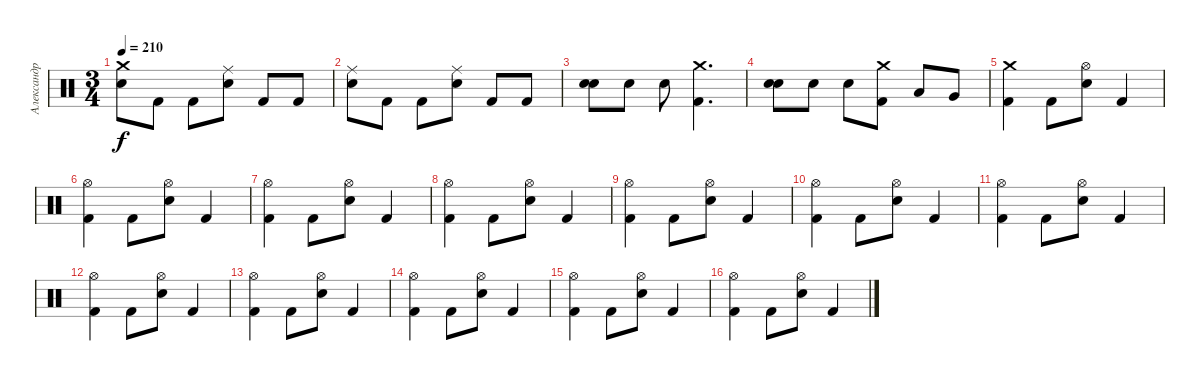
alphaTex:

\track ("Александр Манякин" "Александр ") {instrument percussion}
\staff {score}
\articulation defaults
\ts (3 4)
\tempo 210
\clef neutral
\ks c
("Crash medium (hit)" "Snare (hit) 2").8{dy f} "Kick (hit) 2".8 "Kick (hit) 2".8 ("Ride (middle)" "Snare (hit) 2").8 "Kick (hit) 2".8 "Kick (hit) 2".8 |
("Ride (middle)" "Snare (hit) 2").8 "Kick (hit) 2".8 "Kick (hit) 2".8 ("Ride (middle)" "Snare (hit) 2").8 "Kick (hit) 2".8 "Kick (hit) 2".8 |
("Snare (hit) 2" "Snare (hit) 2").8{bd 60} "Snare (hit) 2".8 "Snare (hit) 2".8 ("Crash medium (hit)" "Kick (hit) 2").4{d} |
("Snare (hit) 2" "Snare (hit) 2").8{bd 60} "Snare (hit) 2".8 "Snare (hit) 2".8 ("Crash medium (hit)" "Kick (hit) 2").8 "Low Tom (hit)".8 "Very Low Tom (hit)".8 |
("Crash medium (hit)" "Kick (hit) 2").4 "Kick (hit) 2".8 ("Hi-Hat (open)" "Snare (hit) 2").8 "Kick (hit) 2".4 |
("Hi-Hat (open)" "Kick (hit) 2").4 "Kick (hit) 2".8 ("Hi-Hat (open)" "Snare (hit) 2").8 "Kick (hit) 2".4 |
("Hi-Hat (open)" "Kick (hit) 2").4 "Kick (hit) 2".8 ("Hi-Hat (open)" "Snare (hit) 2").8 "Kick (hit) 2".4 |
("Hi-Hat (open)" "Kick (hit) 2").4 "Kick (hit) 2".8 ("Hi-Hat (open)" "Snare (hit) 2").8 "Kick (hit) 2".4 |
("Hi-Hat (open)" "Kick (hit) 2").4 "Kick (hit) 2".8 ("Hi-Hat (open)" "Snare (hit) 2").8 "Kick (hit) 2".4 |
("Hi-Hat (open)" "Kick (hit) 2").4 "Kick (hit) 2".8 ("Hi-Hat (open)" "Snare (hit) 2").8 "Kick (hit) 2".4 |
("Hi-Hat (open)" "Kick (hit) 2").4 "Kick (hit) 2".8 ("Hi-Hat (open)" "Snare (hit) 2").8 "Kick (hit) 2".4 |
("Hi-Hat (open)" "Kick (hit) 2").4 "Kick (hit) 2".8 ("Hi-Hat (open)" "Snare (hit) 2").8 "Kick (hit) 2".4 |
("Hi-Hat (open)" "Kick (hit) 2").4 "Kick (hit) 2".8 ("Hi-Hat (open)" "Snare (hit) 2").8 "Kick (hit) 2".4 |
("Hi-Hat (open)" "Kick (hit) 2").4 "Kick (hit) 2".8 ("Hi-Hat (open)" "Snare (hit) 2").8 "Kick (hit) 2".4 |
("Hi-Hat (open)" "Kick (hit) 2").4 "Kick (hit) 2".8 ("Hi-Hat (open)" "Snare (hit) 2").8 "Kick (hit) 2".4 |
("Hi-Hat (open)" "Kick (hit) 2").4 "Kick (hit) 2".8 ("Hi-Hat (open)" "Snare (hit) 2").8 "Kick (hit) 2".4
